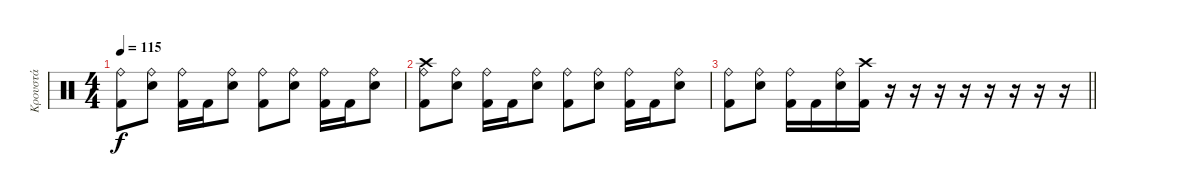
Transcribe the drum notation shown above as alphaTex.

\track ("Κρουστά" "Κρουστά") {instrument percussion}
\staff {score}
\articulation defaults
\ts (4 4)
\tempo 115
\clef neutral
\ks c
("Ride (bell)" "Kick (hit) 2").8{dy f} ("Ride (bell)" "Snare (hit) 2").8 ("Ride (bell)" "Kick (hit) 2").16 "Kick (hit) 2".16 ("Ride (bell)" "Snare (hit) 2").8 ("Ride (bell)" "Kick (hit) 2").8 ("Ride (bell)" "Snare (hit) 2").8 ("Ride (bell)" "Kick (hit) 2").16 "Kick (hit) 2".16 ("Ride (bell)" "Snare (hit) 2").8 |
("Crash high (hit)" "Ride (bell)" "Kick (hit) 2").8 ("Ride (bell)" "Snare (hit) 2").8 ("Ride (bell)" "Kick (hit) 2").16 "Kick (hit) 2".16 ("Ride (bell)" "Snare (hit) 2").8 ("Ride (bell)" "Kick (hit) 2").8 ("Ride (bell)" "Snare (hit) 2").8 ("Ride (bell)" "Kick (hit) 2").16 "Kick (hit) 2".16 ("Ride (bell)" "Snare (hit) 2").8 |
\barLineRight lightlight
("Ride (bell)" "Kick (hit) 2").8 ("Ride (bell)" "Snare (hit) 2").8 ("Ride (bell)" "Kick (hit) 2").16 "Kick (hit) 2".16 ("Ride (bell)" "Snare (hit) 2").16 ("Crash high (hit)" "Kick (hit) 2").16 r.16 r.16 r.16 r.16 r.16 r.16 r.16 r.16
